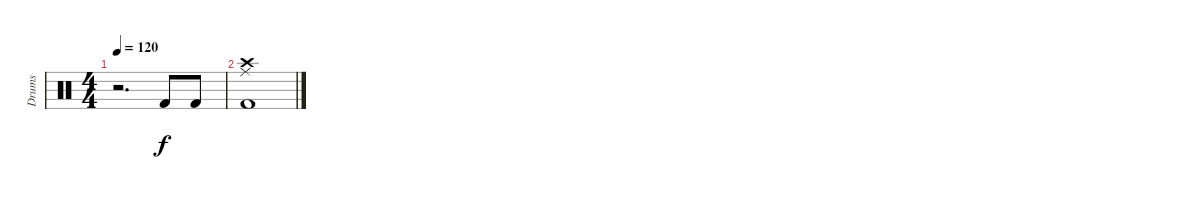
\track ("Drums" "Drums") {instrument percussion}
\staff {score}
\articulation defaults
\ts (4 4)
\tempo 120
\clef neutral
\ks c
r.2{d dy f} "Kick (hit) 2".8 "Kick (hit) 2".8 |
("Crash high (hit)" "Ride (middle)" "Kick (hit) 2").1
